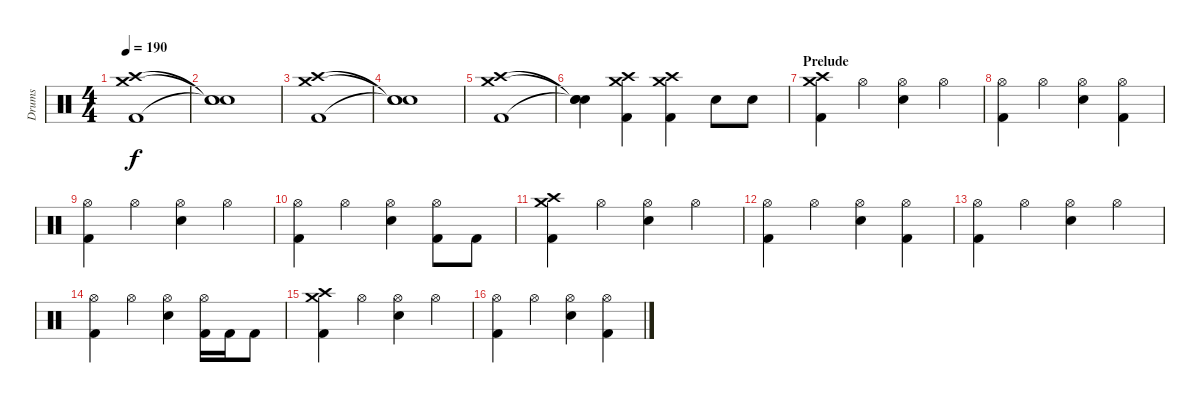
\track ("Drums" "Drums") {instrument percussion}
\staff {score}
\articulation defaults
\ts (4 4)
\tempo 190
\clef neutral
\ks c
("Crash medium (hit)" "Crash high (hit)" "Kick (hit) 2").1{dy f} |
("Snare (hit)"{t} "Snare (hit)"{t} "Snare (hit)"{t}).1 |
("Crash medium (hit)" "Crash high (hit)" "Kick (hit) 2").1 |
("Snare (hit)"{t} "Snare (hit)"{t} "Snare (hit)"{t}).1 |
("Crash medium (hit)" "Crash high (hit)" "Kick (hit) 2").1 |
("Snare (hit)"{t} "Snare (hit)"{t} "Snare (hit)"{t}).4 ("Crash medium (hit)" "Crash high (hit)" "Kick (hit) 2").4 ("Crash medium (hit)" "Crash high (hit)" "Kick (hit) 2").4 "Snare (hit) 2".8 "Snare (hit) 2".8 |
\section ("" "Prelude")
("Crash medium (hit)" "Crash high (hit)" "Kick (hit) 2").4 "Hi-Hat (open)".4 ("Hi-Hat (open)" "Snare (hit) 2").4 "Hi-Hat (open)".4 |
("Hi-Hat (open)" "Kick (hit) 2").4 "Hi-Hat (open)".4 ("Hi-Hat (open)" "Snare (hit) 2").4 ("Hi-Hat (open)" "Kick (hit) 2").4 |
("Hi-Hat (open)" "Kick (hit) 2").4 "Hi-Hat (open)".4 ("Hi-Hat (open)" "Snare (hit) 2").4 "Hi-Hat (open)".4 |
("Hi-Hat (open)" "Kick (hit) 2").4 "Hi-Hat (open)".4 ("Hi-Hat (open)" "Snare (hit) 2").4 ("Hi-Hat (open)" "Kick (hit) 2").8 "Kick (hit) 2".8 |
("Crash medium (hit)" "Crash high (hit)" "Kick (hit) 2").4 "Hi-Hat (open)".4 ("Hi-Hat (open)" "Snare (hit) 2").4 "Hi-Hat (open)".4 |
("Hi-Hat (open)" "Kick (hit) 2").4 "Hi-Hat (open)".4 ("Hi-Hat (open)" "Snare (hit) 2").4 ("Hi-Hat (open)" "Kick (hit) 2").4 |
("Hi-Hat (open)" "Kick (hit) 2").4 "Hi-Hat (open)".4 ("Hi-Hat (open)" "Snare (hit) 2").4 "Hi-Hat (open)".4 |
("Hi-Hat (open)" "Kick (hit) 2").4 "Hi-Hat (open)".4 ("Hi-Hat (open)" "Snare (hit) 2").4 ("Hi-Hat (open)" "Kick (hit) 2").16 "Kick (hit) 2".16 "Kick (hit) 2".8 |
("Crash medium (hit)" "Crash high (hit)" "Kick (hit) 2").4 "Hi-Hat (open)".4 ("Hi-Hat (open)" "Snare (hit) 2").4 "Hi-Hat (open)".4 |
("Hi-Hat (open)" "Kick (hit) 2").4 "Hi-Hat (open)".4 ("Hi-Hat (open)" "Snare (hit) 2").4 ("Hi-Hat (open)" "Kick (hit) 2").4
